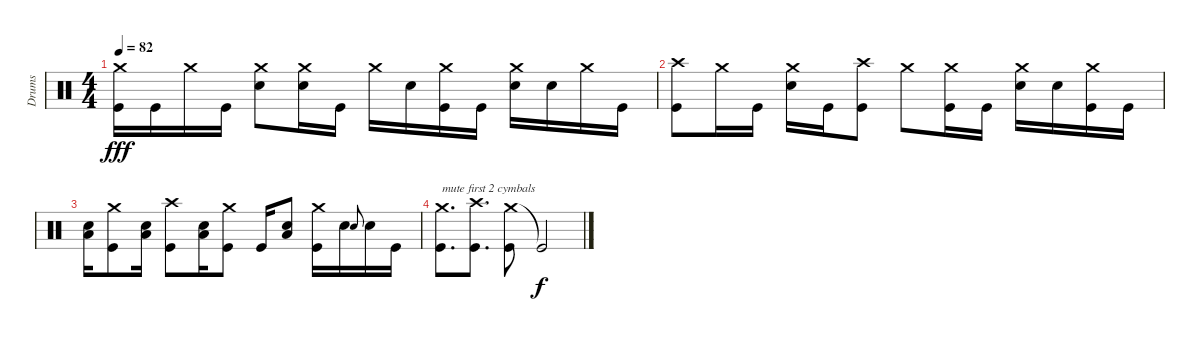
\track ("Drums" "Drums") {instrument percussion}
\staff {score}
\articulation defaults
\ts (4 4)
\tempo 82
\clef neutral
\ks c
("Crash medium (hit)" "Kick (hit)").16{dy fff} "Kick (hit)".16 "Crash medium (hit)".16 "Kick (hit)".16 ("Crash medium (hit)" "Snare (hit) 2").8 ("Crash medium (hit)" "Snare (hit) 2").16 "Kick (hit)".16 "Crash medium (hit)".16 "Snare (hit) 2".16 ("Crash medium (hit)" "Kick (hit)").16 "Kick (hit)".16 ("Crash medium (hit)" "Snare (hit) 2").16 "Snare (hit) 2".16 "Crash medium (hit)".16 "Kick (hit)".16 |
("Crash high (hit)" "Kick (hit)").8 "Crash medium (hit)".16 "Kick (hit)".16 ("Crash medium (hit)" "Snare (hit) 2").16 "Kick (hit)".16 ("Crash high (hit)" "Kick (hit)").8 "Crash medium (hit)".8 ("Crash medium (hit)" "Kick (hit)").16 "Kick (hit)".16 ("Crash medium (hit)" "Snare (hit) 2").16 "Snare (hit) 2".16 ("Crash medium (hit)" "Kick (hit)").16 "Kick (hit)".16 |
("Low Floor Tom (hit)" "Snare (hit) 2").16 ("Crash medium (hit)" "Kick (hit)").8 ("Low Floor Tom (hit)" "Snare (hit) 2").16 ("Crash high (hit)" "Kick (hit)").8 ("Low Floor Tom (hit)" "Snare (hit) 2").16 ("Crash medium (hit)" "Kick (hit)").8 "Kick (hit)".16 ("Low Floor Tom (hit)" "Snare (hit) 2").8 ("Crash medium (hit)" "Kick (hit)").16 "Snare (hit) 2".16 "Snare (hit) 2".8{gr onbeat} "Snare (hit) 2".16 "Kick (hit)".16 |
("Crash medium (hit)" "Kick (hit)").8{d txt "mute first 2 cymbals"} ("Crash high (hit)" "Kick (hit)").8{d} ("Crash medium (hit)" "Kick (hit)").8 "Kick (hit)"{t}.2{dy f}
